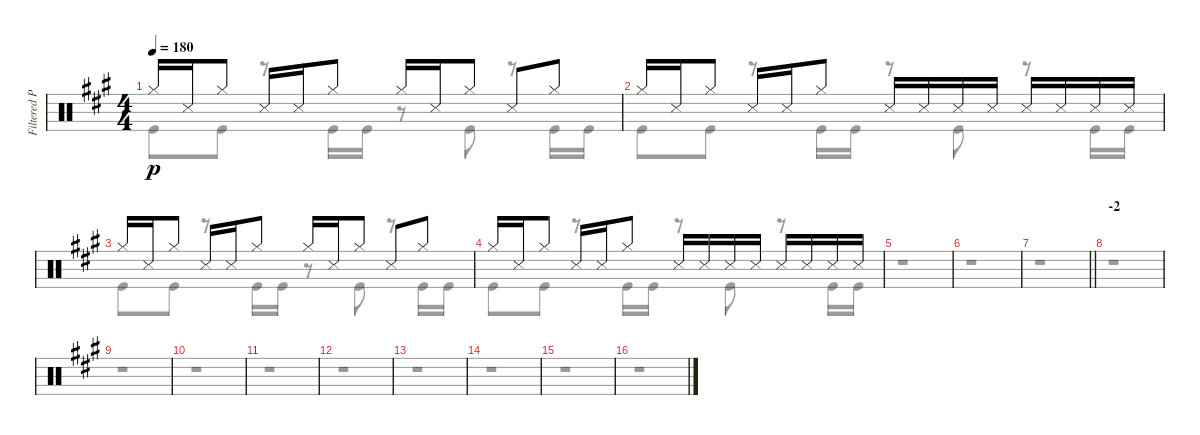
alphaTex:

\track ("Filtered Percussion" "Filtered P") {instrument percussion}
\staff {score}
\articulation defaults
\voice
\ts (4 4)
\tempo 180
\clef neutral
\ks a "Hi-Hat (closed)".16{dy p} "Snare (side stick) 3".16 "Hi-Hat (closed)".8 "Snare (side stick) 3".16 "Snare (side stick) 3".16 "Hi-Hat (closed)".8 "Hi-Hat (closed)".16 "Snare (side stick) 3".16 "Hi-Hat (closed)".8 "Snare (side stick) 3".8 "Hi-Hat (closed)".8
|
"Hi-Hat (closed)".16 "Snare (side stick) 3".16 "Hi-Hat (closed)".8 "Snare (side stick) 3".16 "Snare (side stick) 3".16 "Hi-Hat (closed)".8 "Snare (side stick) 3".16 "Snare (side stick) 3".16 "Snare (side stick) 3".16 "Snare (side stick) 3".16 "Snare (side stick) 3".16 "Snare (side stick) 3".16 "Snare (side stick) 3".16 "Snare (side stick) 3".16 |
"Hi-Hat (closed)".16 "Snare (side stick) 3".16 "Hi-Hat (closed)".8 "Snare (side stick) 3".16 "Snare (side stick) 3".16 "Hi-Hat (closed)".8 "Hi-Hat (closed)".16 "Snare (side stick) 3".16 "Hi-Hat (closed)".8 "Snare (side stick) 3".8 "Hi-Hat (closed)".8 |
"Hi-Hat (closed)".16 "Snare (side stick) 3".16 "Hi-Hat (closed)".8 "Snare (side stick) 3".16 "Snare (side stick) 3".16 "Hi-Hat (closed)".8 "Snare (side stick) 3".16 "Snare (side stick) 3".16 "Snare (side stick) 3".16 "Snare (side stick) 3".16 "Snare (side stick) 3".16 "Snare (side stick) 3".16 "Snare (side stick) 3".16 "Snare (side stick) 3".16 |
|
|
\barLineRight lightlight
|
\section ("" "-2")
|
|
|
|
|
|
|
|
\voice
\clef neutral
\ottava regular
\simile none
\ks a "Kick (hit)".8{dy p} "Kick (hit)".8
r.8 "Kick (hit)".16 "Kick (hit)".16 r.8 "Kick (hit)".8 r.8 "Kick (hit)".16 "Kick (hit)".16 |
"Kick (hit)".8 "Kick (hit)".8 r.8 "Kick (hit)".16 "Kick (hit)".16 r.8 "Kick (hit)".8 r.8 "Kick (hit)".16 "Kick (hit)".16 |
"Kick (hit)".8 "Kick (hit)".8 r.8 "Kick (hit)".16 "Kick (hit)".16 r.8 "Kick (hit)".8 r.8 "Kick (hit)".16 "Kick (hit)".16 |
"Kick (hit)".8 "Kick (hit)".8 r.8 "Kick (hit)".16 "Kick (hit)".16 r.8 "Kick (hit)".8 r.8 "Kick (hit)".16 "Kick (hit)".16 |
r.1 |
r.1 |
\barLineRight lightlight
r.1 |
r.1 |
r.1 |
r.1 |
r.1 |
r.1 |
r.1 |
r.1 |
r.1 |
r.1
